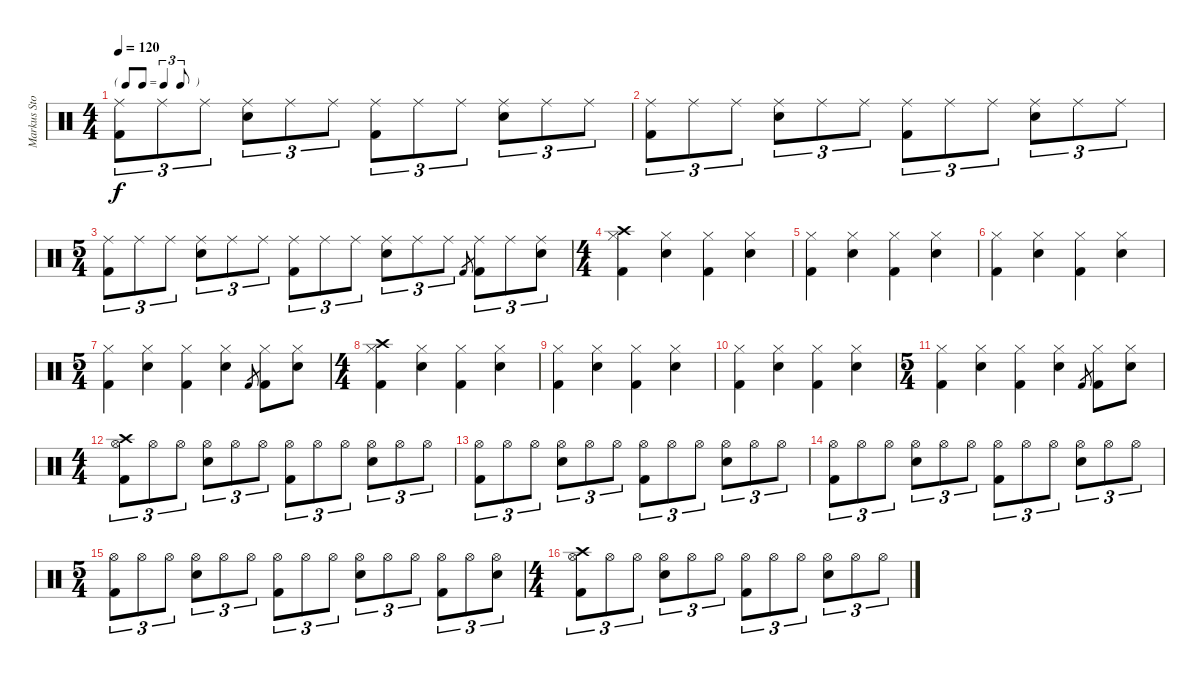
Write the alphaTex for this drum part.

\track ("Markus Stock" "Markus Sto") {instrument percussion}
\staff {score}
\articulation defaults
\ts (4 4)
\tf triplet8th
\tempo 120
\clef neutral
\ks c
("Ride (middle)" "Kick (hit) 2").8{tu (3 2) dy f} "Ride (middle)".8{tu (3 2)} "Ride (middle)".8{tu (3 2)} ("Ride (middle)" "Snare (hit) 2").8{tu (3 2)} "Ride (middle)".8{tu (3 2)} "Ride (middle)".8{tu (3 2)} ("Ride (middle)" "Kick (hit) 2").8{tu (3 2)} "Ride (middle)".8{tu (3 2)} "Ride (middle)".8{tu (3 2)} ("Ride (middle)" "Snare (hit) 2").8{tu (3 2)} "Ride (middle)".8{tu (3 2)} "Ride (middle)".8{tu (3 2)} |
("Ride (middle)" "Kick (hit) 2").8{tu (3 2)} "Ride (middle)".8{tu (3 2)} "Ride (middle)".8{tu (3 2)} ("Ride (middle)" "Snare (hit) 2").8{tu (3 2)} "Ride (middle)".8{tu (3 2)} "Ride (middle)".8{tu (3 2)} ("Ride (middle)" "Kick (hit) 2").8{tu (3 2)} "Ride (middle)".8{tu (3 2)} "Ride (middle)".8{tu (3 2)} ("Ride (middle)" "Snare (hit) 2").8{tu (3 2)} "Ride (middle)".8{tu (3 2)} "Ride (middle)".8{tu (3 2)} |
\ts (5 4)
("Ride (middle)" "Kick (hit) 2").8{tu (3 2)} "Ride (middle)".8{tu (3 2)} "Ride (middle)".8{tu (3 2)} ("Ride (middle)" "Snare (hit) 2").8{tu (3 2)} "Ride (middle)".8{tu (3 2)} "Ride (middle)".8{tu (3 2)} ("Ride (middle)" "Kick (hit) 2").8{tu (3 2)} "Ride (middle)".8{tu (3 2)} "Ride (middle)".8{tu (3 2)} ("Ride (middle)" "Snare (hit) 2").8{tu (3 2)} "Ride (middle)".8{tu (3 2)} "Ride (middle)".8{tu (3 2)} "Kick (hit) 2".8{gr} ("Ride (middle)" "Kick (hit) 2").8{tu (3 2)} "Ride (middle)".8{tu (3 2)} ("Ride (middle)" "Snare (hit) 2").8{tu (3 2)} |
\ts (4 4)
("Crash high (hit)" "Hi-Hat (closed)" "Kick (hit) 2").4 ("Hi-Hat (closed)" "Snare (hit) 2").4 ("Hi-Hat (closed)" "Kick (hit) 2").4 ("Hi-Hat (closed)" "Snare (hit) 2").4 |
("Hi-Hat (closed)" "Kick (hit) 2").4 ("Hi-Hat (closed)" "Snare (hit) 2").4 ("Hi-Hat (closed)" "Kick (hit) 2").4 ("Hi-Hat (closed)" "Snare (hit) 2").4 |
("Hi-Hat (closed)" "Kick (hit) 2").4 ("Hi-Hat (closed)" "Snare (hit) 2").4 ("Hi-Hat (closed)" "Kick (hit) 2").4 ("Hi-Hat (closed)" "Snare (hit) 2").4 |
\ts (5 4)
("Hi-Hat (closed)" "Kick (hit) 2").4 ("Hi-Hat (closed)" "Snare (hit) 2").4 ("Hi-Hat (closed)" "Kick (hit) 2").4 ("Hi-Hat (closed)" "Snare (hit) 2").4 "Kick (hit) 2".8{gr} ("Hi-Hat (closed)" "Kick (hit) 2").8 ("Hi-Hat (closed)" "Snare (hit) 2").8 |
\ts (4 4)
("Crash high (hit)" "Hi-Hat (closed)" "Kick (hit) 2").4 ("Hi-Hat (closed)" "Snare (hit) 2").4 ("Hi-Hat (closed)" "Kick (hit) 2").4 ("Hi-Hat (closed)" "Snare (hit) 2").4 |
("Hi-Hat (closed)" "Kick (hit) 2").4 ("Hi-Hat (closed)" "Snare (hit) 2").4 ("Hi-Hat (closed)" "Kick (hit) 2").4 ("Hi-Hat (closed)" "Snare (hit) 2").4 |
("Hi-Hat (closed)" "Kick (hit) 2").4 ("Hi-Hat (closed)" "Snare (hit) 2").4 ("Hi-Hat (closed)" "Kick (hit) 2").4 ("Hi-Hat (closed)" "Snare (hit) 2").4 |
\ts (5 4)
("Hi-Hat (closed)" "Kick (hit) 2").4 ("Hi-Hat (closed)" "Snare (hit) 2").4 ("Hi-Hat (closed)" "Kick (hit) 2").4 ("Hi-Hat (closed)" "Snare (hit) 2").4 "Kick (hit) 2".8{gr} ("Hi-Hat (closed)" "Kick (hit) 2").8 ("Hi-Hat (closed)" "Snare (hit) 2").8 |
\ts (4 4)
("Crash high (hit)" "Hi-Hat (open)" "Kick (hit) 2").8{tu (3 2)} "Hi-Hat (open)".8{tu (3 2)} "Hi-Hat (open)".8{tu (3 2)} ("Hi-Hat (open)" "Snare (hit) 2").8{tu (3 2)} "Hi-Hat (open)".8{tu (3 2)} "Hi-Hat (open)".8{tu (3 2)} ("Hi-Hat (open)" "Kick (hit) 2").8{tu (3 2)} "Hi-Hat (open)".8{tu (3 2)} "Hi-Hat (open)".8{tu (3 2)} ("Hi-Hat (open)" "Snare (hit) 2").8{tu (3 2)} "Hi-Hat (open)".8{tu (3 2)} "Hi-Hat (open)".8{tu (3 2)} |
("Hi-Hat (open)" "Kick (hit) 2").8{tu (3 2)} "Hi-Hat (open)".8{tu (3 2)} "Hi-Hat (open)".8{tu (3 2)} ("Hi-Hat (open)" "Snare (hit) 2").8{tu (3 2)} "Hi-Hat (open)".8{tu (3 2)} "Hi-Hat (open)".8{tu (3 2)} ("Hi-Hat (open)" "Kick (hit) 2").8{tu (3 2)} "Hi-Hat (open)".8{tu (3 2)} "Hi-Hat (open)".8{tu (3 2)} ("Hi-Hat (open)" "Snare (hit) 2").8{tu (3 2)} "Hi-Hat (open)".8{tu (3 2)} "Hi-Hat (open)".8{tu (3 2)} |
("Hi-Hat (open)" "Kick (hit) 2").8{tu (3 2)} "Hi-Hat (open)".8{tu (3 2)} "Hi-Hat (open)".8{tu (3 2)} ("Hi-Hat (open)" "Snare (hit) 2").8{tu (3 2)} "Hi-Hat (open)".8{tu (3 2)} "Hi-Hat (open)".8{tu (3 2)} ("Hi-Hat (open)" "Kick (hit) 2").8{tu (3 2)} "Hi-Hat (open)".8{tu (3 2)} "Hi-Hat (open)".8{tu (3 2)} ("Hi-Hat (open)" "Snare (hit) 2").8{tu (3 2)} "Hi-Hat (open)".8{tu (3 2)} "Hi-Hat (open)".8{tu (3 2)} |
\ts (5 4)
("Hi-Hat (open)" "Kick (hit) 2").8{tu (3 2)} "Hi-Hat (open)".8{tu (3 2)} "Hi-Hat (open)".8{tu (3 2)} ("Hi-Hat (open)" "Snare (hit) 2").8{tu (3 2)} "Hi-Hat (open)".8{tu (3 2)} "Hi-Hat (open)".8{tu (3 2)} ("Hi-Hat (open)" "Kick (hit) 2").8{tu (3 2)} "Hi-Hat (open)".8{tu (3 2)} "Hi-Hat (open)".8{tu (3 2)} ("Hi-Hat (open)" "Snare (hit) 2").8{tu (3 2)} "Hi-Hat (open)".8{tu (3 2)} "Hi-Hat (open)".8{tu (3 2)} ("Hi-Hat (open)" "Kick (hit) 2").8{tu (3 2)} "Hi-Hat (open)".8{tu (3 2)} ("Hi-Hat (open)" "Snare (hit) 2").8{tu (3 2)} |
\ts (4 4)
("Crash high (hit)" "Hi-Hat (open)" "Kick (hit) 2").8{tu (3 2)} "Hi-Hat (open)".8{tu (3 2)} "Hi-Hat (open)".8{tu (3 2)} ("Hi-Hat (open)" "Snare (hit) 2").8{tu (3 2)} "Hi-Hat (open)".8{tu (3 2)} "Hi-Hat (open)".8{tu (3 2)} ("Hi-Hat (open)" "Kick (hit) 2").8{tu (3 2)} "Hi-Hat (open)".8{tu (3 2)} "Hi-Hat (open)".8{tu (3 2)} ("Hi-Hat (open)" "Snare (hit) 2").8{tu (3 2)} "Hi-Hat (open)".8{tu (3 2)} "Hi-Hat (open)".8{tu (3 2)}
